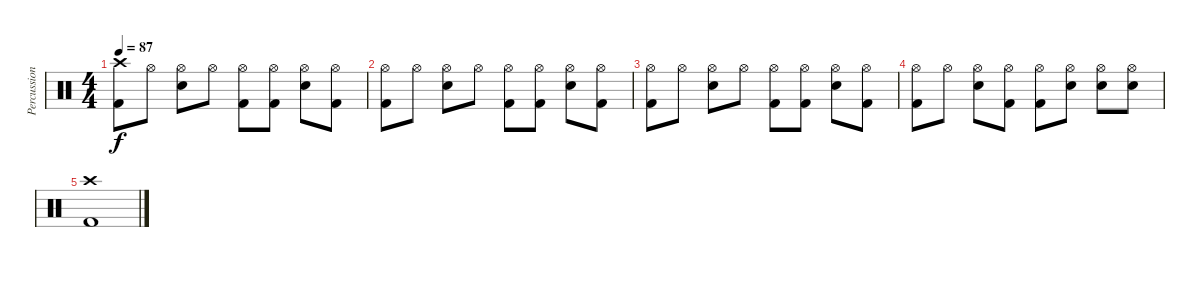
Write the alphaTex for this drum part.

\track ("Percussion" "Percussion") {instrument percussion}
\staff {score}
\articulation defaults
\ts (4 4)
\tempo 87
\clef neutral
\ks c
("Crash high (hit)" "Kick (hit) 2").8{dy f} "Hi-Hat (open)".8 ("Hi-Hat (open)" "Snare (hit) 2").8 "Hi-Hat (open)".8 ("Hi-Hat (open)" "Kick (hit) 2").8 ("Hi-Hat (open)" "Kick (hit) 2").8 ("Hi-Hat (open)" "Snare (hit) 2").8 ("Hi-Hat (open)" "Kick (hit) 2").8 |
("Hi-Hat (open)" "Kick (hit) 2").8 "Hi-Hat (open)".8 ("Hi-Hat (open)" "Snare (hit) 2").8 "Hi-Hat (open)".8 ("Hi-Hat (open)" "Kick (hit) 2").8 ("Hi-Hat (open)" "Kick (hit) 2").8 ("Hi-Hat (open)" "Snare (hit) 2").8 ("Hi-Hat (open)" "Kick (hit) 2").8 |
("Hi-Hat (open)" "Kick (hit) 2").8 "Hi-Hat (open)".8 ("Hi-Hat (open)" "Snare (hit) 2").8 "Hi-Hat (open)".8 ("Hi-Hat (open)" "Kick (hit) 2").8 ("Hi-Hat (open)" "Kick (hit) 2").8 ("Hi-Hat (open)" "Snare (hit) 2").8 ("Hi-Hat (open)" "Kick (hit) 2").8 |
("Hi-Hat (open)" "Kick (hit) 2").8 "Hi-Hat (open)".8 ("Hi-Hat (open)" "Snare (hit) 2").8 ("Hi-Hat (open)" "Kick (hit) 2").8 ("Hi-Hat (open)" "Kick (hit) 2").8 ("Hi-Hat (open)" "Snare (hit) 2").8 ("Hi-Hat (open)" "Snare (hit) 2").8 ("Hi-Hat (open)" "Snare (hit) 2").8 |
("Crash high (hit)" "Kick (hit) 2").1
